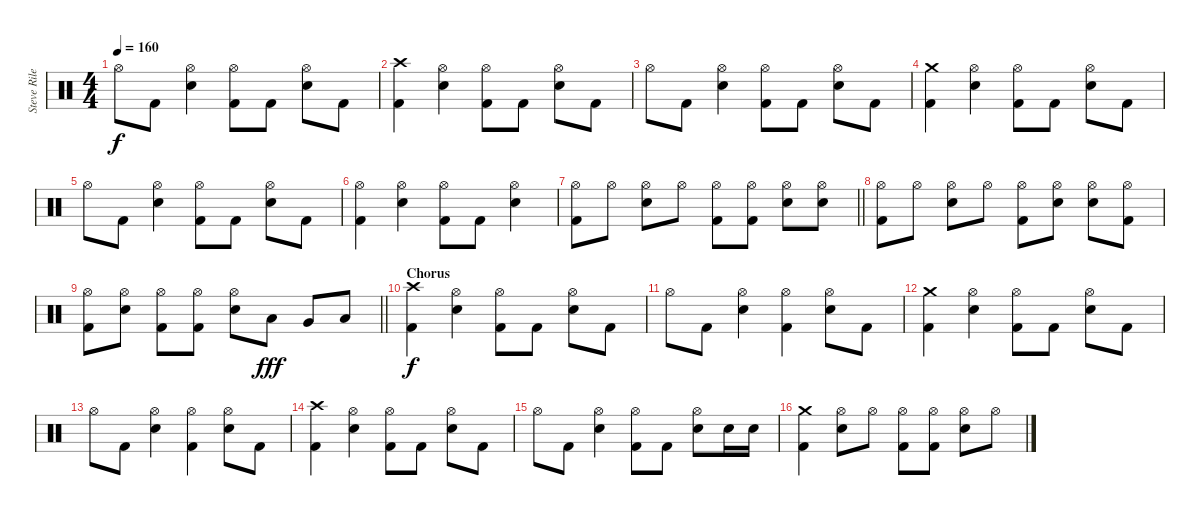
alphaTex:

\track ("Steve Riley" "Steve Rile") {instrument percussion}
\staff {score}
\articulation defaults
\ts (4 4)
\tempo 160
\clef neutral
\ks c "Hi-Hat (open)".8{dy f} "Kick (hit) 2".8
("Hi-Hat (open)" "Snare (hit) 2").4 ("Hi-Hat (open)" "Kick (hit) 2").8 "Kick (hit) 2".8 ("Hi-Hat (open)" "Snare (hit) 2").8 "Kick (hit) 2".8 |
("Crash high (hit)" "Kick (hit) 2").4 ("Hi-Hat (open)" "Snare (hit) 2").4 ("Hi-Hat (open)" "Kick (hit) 2").8 "Kick (hit) 2".8 ("Hi-Hat (open)" "Snare (hit) 2").8 "Kick (hit) 2".8 |
"Hi-Hat (open)".8 "Kick (hit) 2".8 ("Hi-Hat (open)" "Snare (hit) 2").4 ("Hi-Hat (open)" "Kick (hit) 2").8 "Kick (hit) 2".8 ("Hi-Hat (open)" "Snare (hit) 2").8 "Kick (hit) 2".8 |
("Crash medium (hit)" "Kick (hit) 2").4 ("Hi-Hat (open)" "Snare (hit) 2").4 ("Hi-Hat (open)" "Kick (hit) 2").8 "Kick (hit) 2".8 ("Hi-Hat (open)" "Snare (hit) 2").8 "Kick (hit) 2".8 |
"Hi-Hat (open)".8 "Kick (hit) 2".8 ("Hi-Hat (open)" "Snare (hit) 2").4 ("Hi-Hat (open)" "Kick (hit) 2").8 "Kick (hit) 2".8 ("Hi-Hat (open)" "Snare (hit) 2").8 "Kick (hit) 2".8 |
("Hi-Hat (open)" "Kick (hit) 2").4 ("Hi-Hat (open)" "Snare (hit) 2").4 ("Hi-Hat (open)" "Kick (hit) 2").8 "Kick (hit) 2".8 ("Hi-Hat (open)" "Snare (hit) 2").4 |
\barLineRight lightlight
("Hi-Hat (open)" "Kick (hit) 2").8 "Hi-Hat (open)".8 ("Hi-Hat (open)" "Snare (hit) 2").8 "Hi-Hat (open)".8 ("Hi-Hat (open)" "Kick (hit) 2").8 ("Hi-Hat (open)" "Kick (hit) 2").8 ("Hi-Hat (open)" "Snare (hit) 2").8 ("Hi-Hat (open)" "Snare (hit) 2").8 |
("Hi-Hat (open)" "Kick (hit) 2").8 "Hi-Hat (open)".8 ("Hi-Hat (open)" "Snare (hit) 2").8 "Hi-Hat (open)".8 ("Hi-Hat (open)" "Kick (hit) 2").8 ("Hi-Hat (open)" "Snare (hit) 2").8 ("Hi-Hat (open)" "Snare (hit) 2").8 ("Hi-Hat (open)" "Kick (hit) 2").8 |
\barLineRight lightlight
("Hi-Hat (open)" "Kick (hit) 2").8 ("Hi-Hat (open)" "Snare (hit) 2").8 ("Hi-Hat (open)" "Kick (hit) 2").8 ("Hi-Hat (open)" "Kick (hit) 2").8 ("Hi-Hat (open)" "Snare (hit) 2").8 "Low Tom (hit)".8{dy fff} "Very Low Tom (hit)".8 "Low Floor Tom (hit)".8 |
\section ("" "Chorus")
("Crash high (hit)" "Kick (hit) 2").4{dy f} ("Hi-Hat (open)" "Snare (hit) 2").4 ("Hi-Hat (open)" "Kick (hit) 2").8 "Kick (hit) 2".8 ("Hi-Hat (open)" "Snare (hit) 2").8 "Kick (hit) 2".8 |
"Hi-Hat (open)".8 "Kick (hit) 2".8 ("Hi-Hat (open)" "Snare (hit) 2").4 ("Hi-Hat (open)" "Kick (hit) 2").4 ("Hi-Hat (open)" "Snare (hit) 2").8 "Kick (hit) 2".8 |
("Crash medium (hit)" "Kick (hit) 2").4 ("Hi-Hat (open)" "Snare (hit) 2").4 ("Hi-Hat (open)" "Kick (hit) 2").8 "Kick (hit) 2".8 ("Hi-Hat (open)" "Snare (hit) 2").8 "Kick (hit) 2".8 |
"Hi-Hat (open)".8 "Kick (hit) 2".8 ("Hi-Hat (open)" "Snare (hit) 2").4 ("Hi-Hat (open)" "Kick (hit) 2").4 ("Hi-Hat (open)" "Snare (hit) 2").8 "Kick (hit) 2".8 |
("Crash high (hit)" "Kick (hit) 2").4 ("Hi-Hat (open)" "Snare (hit) 2").4 ("Hi-Hat (open)" "Kick (hit) 2").8 "Kick (hit) 2".8 ("Hi-Hat (open)" "Snare (hit) 2").8 "Kick (hit) 2".8 |
"Hi-Hat (open)".8 "Kick (hit) 2".8 ("Hi-Hat (open)" "Snare (hit) 2").4 ("Hi-Hat (open)" "Kick (hit) 2").8 "Kick (hit) 2".8 ("Hi-Hat (open)" "Snare (hit) 2").8 "Snare (hit) 2".16 "Snare (hit) 2".16 |
("Crash medium (hit)" "Kick (hit) 2").4 ("Hi-Hat (open)" "Snare (hit) 2").8 "Hi-Hat (open)".8 ("Hi-Hat (open)" "Kick (hit) 2").8 ("Hi-Hat (open)" "Kick (hit) 2").8 ("Hi-Hat (open)" "Snare (hit) 2").8 "Hi-Hat (open)".8
